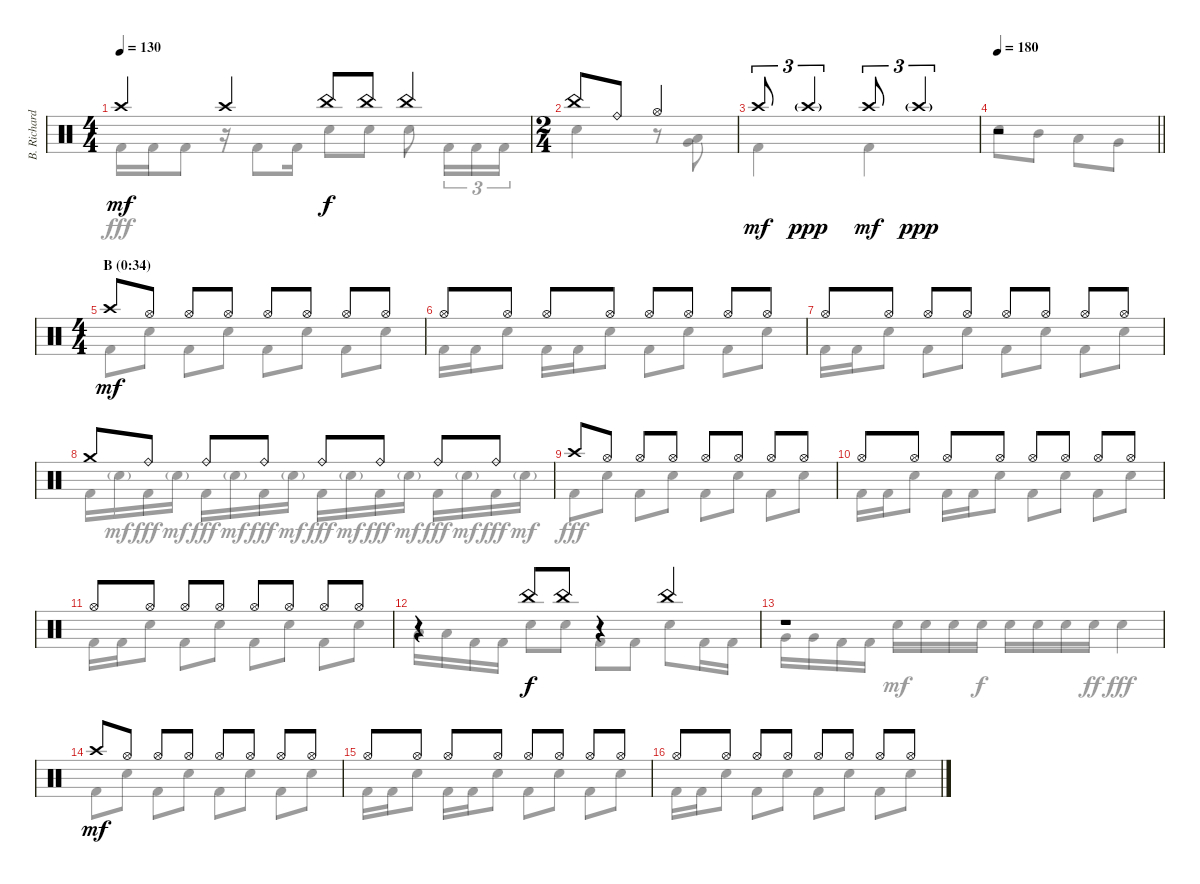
\track ("B. Richardson Drums" "B. Richard") {instrument percussion}
\staff {score}
\articulation defaults
\voice
\ts (4 4)
\tempo 130
\clef neutral
\ks c "Crash high (hit)".4{dy mf} "Crash high (hit)".4 "China (hit)".8{dy f} "China (hit)".8 "China (hit)".4
|
\ts (2 4)
"China (hit)".8 "Ride (bell)".8 "Hi-Hat (open)".4 |
"Crash high (hit)".8{tu (3 2) dy mf} "Crash high (hit)"{g}.4{tu (3 2) dy ppp} "Crash high (hit)".8{tu (3 2) dy mf} "Crash high (hit)"{g}.4{tu (3 2) dy ppp} |
\tempo 180
\barLineRight lightlight
r.2 |
\ts (4 4)
\section ("" "B (0:34)")
"Crash high (hit)".8{dy mf} "Hi-Hat (open)".8 "Hi-Hat (open)".8 "Hi-Hat (open)".8 "Hi-Hat (open)".8 "Hi-Hat (open)".8 "Hi-Hat (open)".8 "Hi-Hat (open)".8 |
"Hi-Hat (open)".8 "Hi-Hat (open)".8 "Hi-Hat (open)".8 "Hi-Hat (open)".8 "Hi-Hat (open)".8 "Hi-Hat (open)".8 "Hi-Hat (open)".8 "Hi-Hat (open)".8 |
"Hi-Hat (open)".8 "Hi-Hat (open)".8 "Hi-Hat (open)".8 "Hi-Hat (open)".8 "Hi-Hat (open)".8 "Hi-Hat (open)".8 "Hi-Hat (open)".8 "Hi-Hat (open)".8 |
"Crash medium (hit)".8 "Ride (bell)".8 "Ride (bell)".8 "Ride (bell)".8 "Ride (bell)".8 "Ride (bell)".8 "Ride (bell)".8 "Ride (bell)".8 |
"Crash high (hit)".8 "Hi-Hat (open)".8 "Hi-Hat (open)".8 "Hi-Hat (open)".8 "Hi-Hat (open)".8 "Hi-Hat (open)".8 "Hi-Hat (open)".8 "Hi-Hat (open)".8 |
"Hi-Hat (open)".8 "Hi-Hat (open)".8 "Hi-Hat (open)".8 "Hi-Hat (open)".8 "Hi-Hat (open)".8 "Hi-Hat (open)".8 "Hi-Hat (open)".8 "Hi-Hat (open)".8 |
"Hi-Hat (open)".8 "Hi-Hat (open)".8 "Hi-Hat (open)".8 "Hi-Hat (open)".8 "Hi-Hat (open)".8 "Hi-Hat (open)".8 "Hi-Hat (open)".8 "Hi-Hat (open)".8 |
r.4 "China (hit)".8{dy f} "China (hit)".8 r.4 "China (hit)".4 |
r.1 |
"Crash high (hit)".8{dy mf} "Hi-Hat (open)".8 "Hi-Hat (open)".8 "Hi-Hat (open)".8 "Hi-Hat (open)".8 "Hi-Hat (open)".8 "Hi-Hat (open)".8 "Hi-Hat (open)".8 |
"Hi-Hat (open)".8 "Hi-Hat (open)".8 "Hi-Hat (open)".8 "Hi-Hat (open)".8 "Hi-Hat (open)".8 "Hi-Hat (open)".8 "Hi-Hat (open)".8 "Hi-Hat (open)".8 |
"Hi-Hat (open)".8 "Hi-Hat (open)".8 "Hi-Hat (open)".8 "Hi-Hat (open)".8 "Hi-Hat (open)".8 "Hi-Hat (open)".8 "Hi-Hat (open)".8 "Hi-Hat (open)".8
\voice
\clef neutral
\ottava regular
\simile none
\ks c "Kick (hit) 2".16{dy fff} "Kick (hit) 2".16 "Kick (hit) 2".8
r.16 "Kick (hit) 2".8 "Kick (hit) 2".16 "Electric Snare (hit)".8 "Electric Snare (hit)".8 "Electric Snare (hit)".8 "Kick (hit) 2".16{tu (3 2)} "Kick (hit) 2".16{tu (3 2)} "Kick (hit) 2".16{tu (3 2)} |
"Electric Snare (hit)".4 r.8 ("Low Tom (hit)" "Very Low Tom (hit)").8 |
"Kick (hit) 2".4 "Kick (hit) 2".4 |
\barLineRight lightlight "Electric Snare (hit)".8 "Mid Tom (hit)".8 "Low Tom (hit)".8 "Very Low Tom (hit)".8
|
"Kick (hit) 2".8 "Electric Snare (hit)".8 "Kick (hit) 2".8 "Electric Snare (hit)".8 "Kick (hit) 2".8 "Electric Snare (hit)".8 "Kick (hit) 2".8 "Electric Snare (hit)".8 |
"Kick (hit) 2".16 "Kick (hit) 2".16 "Electric Snare (hit)".8 "Kick (hit) 2".16 "Kick (hit) 2".16 "Electric Snare (hit)".8 "Kick (hit) 2".8 "Electric Snare (hit)".8 "Kick (hit) 2".8 "Electric Snare (hit)".8 |
"Kick (hit) 2".16 "Kick (hit) 2".16 "Electric Snare (hit)".8 "Kick (hit) 2".8 "Electric Snare (hit)".8 "Kick (hit) 2".8 "Electric Snare (hit)".8 "Kick (hit) 2".8 "Electric Snare (hit)".8 |
"Kick (hit) 2".16 "Electric Snare (hit)"{g}.16{dy mf} "Kick (hit) 2".16{dy fff} "Electric Snare (hit)"{g}.16{dy mf} "Kick (hit) 2".16{dy fff} "Electric Snare (hit)"{g}.16{dy mf} "Kick (hit) 2".16{dy fff} "Electric Snare (hit)"{g}.16{dy mf} "Kick (hit) 2".16{dy fff} "Electric Snare (hit)"{g}.16{dy mf} "Kick (hit) 2".16{dy fff} "Electric Snare (hit)"{g}.16{dy mf} "Kick (hit) 2".16{dy fff} "Electric Snare (hit)"{g}.16{dy mf} "Kick (hit) 2".16{dy fff} "Electric Snare (hit)"{g}.16{dy mf} |
"Kick (hit) 2".8{dy fff} "Electric Snare (hit)".8 "Kick (hit) 2".8 "Electric Snare (hit)".8 "Kick (hit) 2".8 "Electric Snare (hit)".8 "Kick (hit) 2".8 "Electric Snare (hit)".8 |
"Kick (hit) 2".16 "Kick (hit) 2".16 "Electric Snare (hit)".8 "Kick (hit) 2".16 "Kick (hit) 2".16 "Electric Snare (hit)".8 "Kick (hit) 2".8 "Electric Snare (hit)".8 "Kick (hit) 2".8 "Electric Snare (hit)".8 |
"Kick (hit) 2".16 "Kick (hit) 2".16 "Electric Snare (hit)".8 "Kick (hit) 2".8 "Electric Snare (hit)".8 "Kick (hit) 2".8 "Electric Snare (hit)".8 "Kick (hit) 2".8 "Electric Snare (hit)".8 |
"Low Tom (hit)".16 "Low Tom (hit)".16 "Kick (hit) 2".16 "Kick (hit) 2".16 "Electric Snare (hit)".8 "Electric Snare (hit)".8 "Kick (hit) 2".8 "Kick (hit) 2".8 "Electric Snare (hit)".8 "Kick (hit) 2".16 "Kick (hit) 2".16 |
"Very Low Tom (hit)".16 "Very Low Tom (hit)".16 "Kick (hit) 2".16 "Kick (hit) 2".16 "Electric Snare (hit)".16{dy mf} "Electric Snare (hit)".16 "Electric Snare (hit)".16 "Electric Snare (hit)".16{dy f} "Electric Snare (hit)".16 "Electric Snare (hit)".16 "Electric Snare (hit)".16 "Electric Snare (hit)".16{dy ff} "Electric Snare (hit)".4{dy fff} |
"Kick (hit) 2".8 "Electric Snare (hit)".8 "Kick (hit) 2".8 "Electric Snare (hit)".8 "Kick (hit) 2".8 "Electric Snare (hit)".8 "Kick (hit) 2".8 "Electric Snare (hit)".8 |
"Kick (hit) 2".16 "Kick (hit) 2".16 "Electric Snare (hit)".8 "Kick (hit) 2".16 "Kick (hit) 2".16 "Electric Snare (hit)".8 "Kick (hit) 2".8 "Electric Snare (hit)".8 "Kick (hit) 2".8 "Electric Snare (hit)".8 |
"Kick (hit) 2".16 "Kick (hit) 2".16 "Electric Snare (hit)".8 "Kick (hit) 2".8 "Electric Snare (hit)".8 "Kick (hit) 2".8 "Electric Snare (hit)".8 "Kick (hit) 2".8 "Electric Snare (hit)".8
